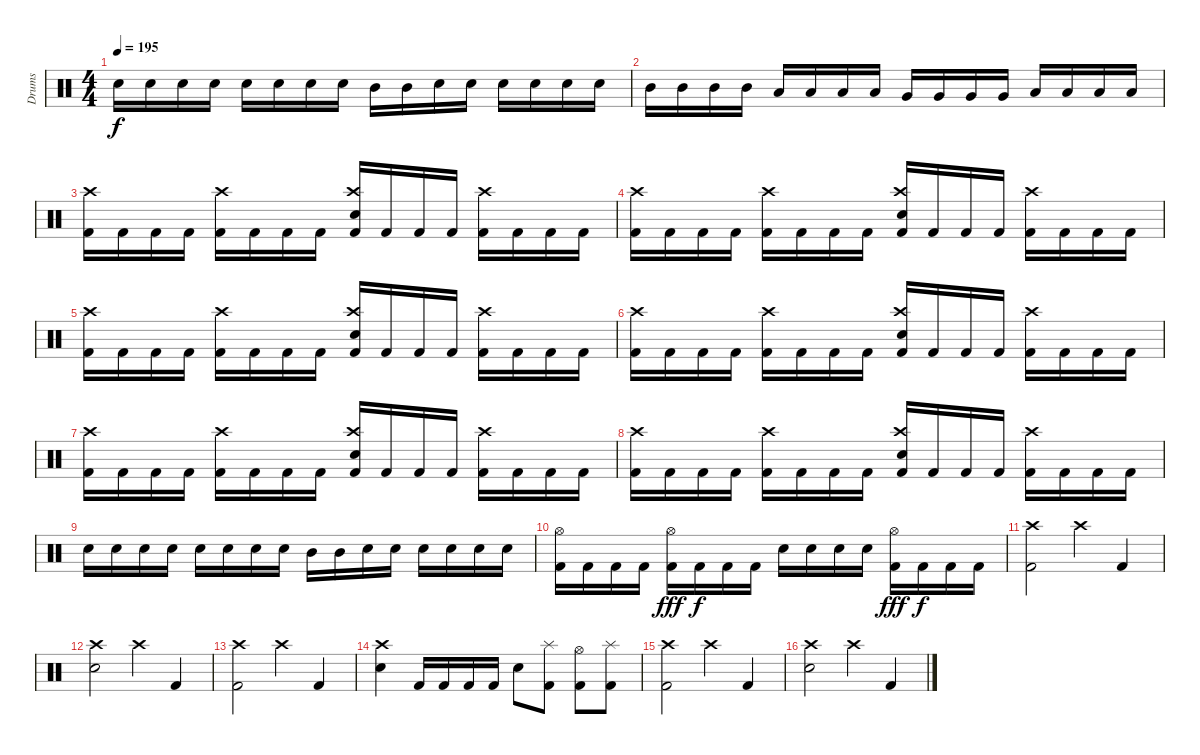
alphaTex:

\track ("Drums" "Drums") {instrument percussion}
\staff {score}
\articulation defaults
\ts (4 4)
\tempo 195
\clef neutral
\ks c "Snare (hit) 2".16{dy f} "Snare (hit) 2".16 "Snare (hit) 2".16 "Snare (hit) 2".16 "Snare (hit) 2".16 "Snare (hit) 2".16 "Snare (hit) 2".16 "Snare (hit) 2".16 "Mid Tom (hit)".16 "Mid Tom (hit)".16 "Snare (hit) 2".16 "Snare (hit) 2".16 "Snare (hit) 2".16 "Snare (hit) 2".16 "Snare (hit) 2".16 "Snare (hit) 2".16
|
"Mid Tom (hit)".16 "Mid Tom (hit)".16 "Mid Tom (hit)".16 "Mid Tom (hit)".16 "Low Tom (hit)".16 "Low Tom (hit)".16 "Low Tom (hit)".16 "Low Tom (hit)".16 "Very Low Tom (hit)".16 "Very Low Tom (hit)".16 "Very Low Tom (hit)".16 "Very Low Tom (hit)".16 "Low Floor Tom (hit)".16 "Low Floor Tom (hit)".16 "Low Floor Tom (hit)".16 "Low Floor Tom (hit)".16 |
("Crash high (hit)" "Kick (hit) 2").16 "Kick (hit) 2".16 "Kick (hit) 2".16 "Kick (hit) 2".16 ("Crash high (hit)" "Kick (hit) 2").16 "Kick (hit) 2".16 "Kick (hit) 2".16 "Kick (hit) 2".16 ("Crash high (hit)" "Snare (hit) 2" "Kick (hit) 2").16 "Kick (hit) 2".16 "Kick (hit) 2".16 "Kick (hit) 2".16 ("Crash high (hit)" "Kick (hit) 2").16 "Kick (hit) 2".16 "Kick (hit) 2".16 "Kick (hit) 2".16 |
("Crash high (hit)" "Kick (hit) 2").16 "Kick (hit) 2".16 "Kick (hit) 2".16 "Kick (hit) 2".16 ("Crash high (hit)" "Kick (hit) 2").16 "Kick (hit) 2".16 "Kick (hit) 2".16 "Kick (hit) 2".16 ("Crash high (hit)" "Snare (hit) 2" "Kick (hit) 2").16 "Kick (hit) 2".16 "Kick (hit) 2".16 "Kick (hit) 2".16 ("Crash high (hit)" "Kick (hit) 2").16 "Kick (hit) 2".16 "Kick (hit) 2".16 "Kick (hit) 2".16 |
("Crash high (hit)" "Kick (hit) 2").16 "Kick (hit) 2".16 "Kick (hit) 2".16 "Kick (hit) 2".16 ("Crash high (hit)" "Kick (hit) 2").16 "Kick (hit) 2".16 "Kick (hit) 2".16 "Kick (hit) 2".16 ("Crash high (hit)" "Snare (hit) 2" "Kick (hit) 2").16 "Kick (hit) 2".16 "Kick (hit) 2".16 "Kick (hit) 2".16 ("Crash high (hit)" "Kick (hit) 2").16 "Kick (hit) 2".16 "Kick (hit) 2".16 "Kick (hit) 2".16 |
("Crash high (hit)" "Kick (hit) 2").16 "Kick (hit) 2".16 "Kick (hit) 2".16 "Kick (hit) 2".16 ("Crash high (hit)" "Kick (hit) 2").16 "Kick (hit) 2".16 "Kick (hit) 2".16 "Kick (hit) 2".16 ("Crash high (hit)" "Snare (hit) 2" "Kick (hit) 2").16 "Kick (hit) 2".16 "Kick (hit) 2".16 "Kick (hit) 2".16 ("Crash high (hit)" "Kick (hit) 2").16 "Kick (hit) 2".16 "Kick (hit) 2".16 "Kick (hit) 2".16 |
("Crash high (hit)" "Kick (hit) 2").16 "Kick (hit) 2".16 "Kick (hit) 2".16 "Kick (hit) 2".16 ("Crash high (hit)" "Kick (hit) 2").16 "Kick (hit) 2".16 "Kick (hit) 2".16 "Kick (hit) 2".16 ("Crash high (hit)" "Snare (hit) 2" "Kick (hit) 2").16 "Kick (hit) 2".16 "Kick (hit) 2".16 "Kick (hit) 2".16 ("Crash high (hit)" "Kick (hit) 2").16 "Kick (hit) 2".16 "Kick (hit) 2".16 "Kick (hit) 2".16 |
("Crash high (hit)" "Kick (hit) 2").16 "Kick (hit) 2".16 "Kick (hit) 2".16 "Kick (hit) 2".16 ("Crash high (hit)" "Kick (hit) 2").16 "Kick (hit) 2".16 "Kick (hit) 2".16 "Kick (hit) 2".16 ("Crash high (hit)" "Snare (hit) 2" "Kick (hit) 2").16 "Kick (hit) 2".16 "Kick (hit) 2".16 "Kick (hit) 2".16 ("Crash high (hit)" "Kick (hit) 2").16 "Kick (hit) 2".16 "Kick (hit) 2".16 "Kick (hit) 2".16 |
"Snare (hit) 2".16 "Snare (hit) 2".16 "Snare (hit) 2".16 "Snare (hit) 2".16 "Snare (hit) 2".16 "Snare (hit) 2".16 "Snare (hit) 2".16 "Snare (hit) 2".16 "Mid Tom (hit)".16 "Mid Tom (hit)".16 "Snare (hit) 2".16 "Snare (hit) 2".16 "Snare (hit) 2".16 "Snare (hit) 2".16 "Snare (hit) 2".16 "Snare (hit) 2".16 |
("Hi-Hat (open)" "Kick (hit) 2").16 "Kick (hit) 2".16 "Kick (hit) 2".16 "Kick (hit) 2".16 ("Hi-Hat (open)" "Kick (hit) 2").16{dy fff} "Kick (hit) 2".16{dy f} "Kick (hit) 2".16 "Kick (hit) 2".16 "Snare (hit) 2".16 "Snare (hit) 2".16 "Snare (hit) 2".16 "Snare (hit) 2".16 ("Hi-Hat (open)" "Kick (hit) 2").16{dy fff} "Kick (hit) 2".16{dy f} "Kick (hit) 2".16 "Kick (hit) 2".16 |
("Crash high (hit)" "Kick (hit) 2").2 "Crash high (hit)".4 "Kick (hit) 2".4 |
("Crash high (hit)" "Snare (hit) 2").2 "Crash high (hit)".4 "Kick (hit) 2".4 |
("Crash high (hit)" "Kick (hit) 2").2 "Crash high (hit)".4 "Kick (hit) 2".4 |
("Crash high (hit)" "Snare (hit) 2").4 "Kick (hit) 2".16 "Kick (hit) 2".16 "Kick (hit) 2".16 "Kick (hit) 2".16 "Snare (hit) 2".8 ("Splash (hit)" "Kick (hit) 2").8 ("Hi-Hat (open)" "Kick (hit) 2").8 ("Splash (hit)" "Kick (hit) 2").8 |
("Crash high (hit)" "Kick (hit) 2").2 "Crash high (hit)".4 "Kick (hit) 2".4 |
("Crash high (hit)" "Snare (hit) 2").2 "Crash high (hit)".4 "Kick (hit) 2".4
